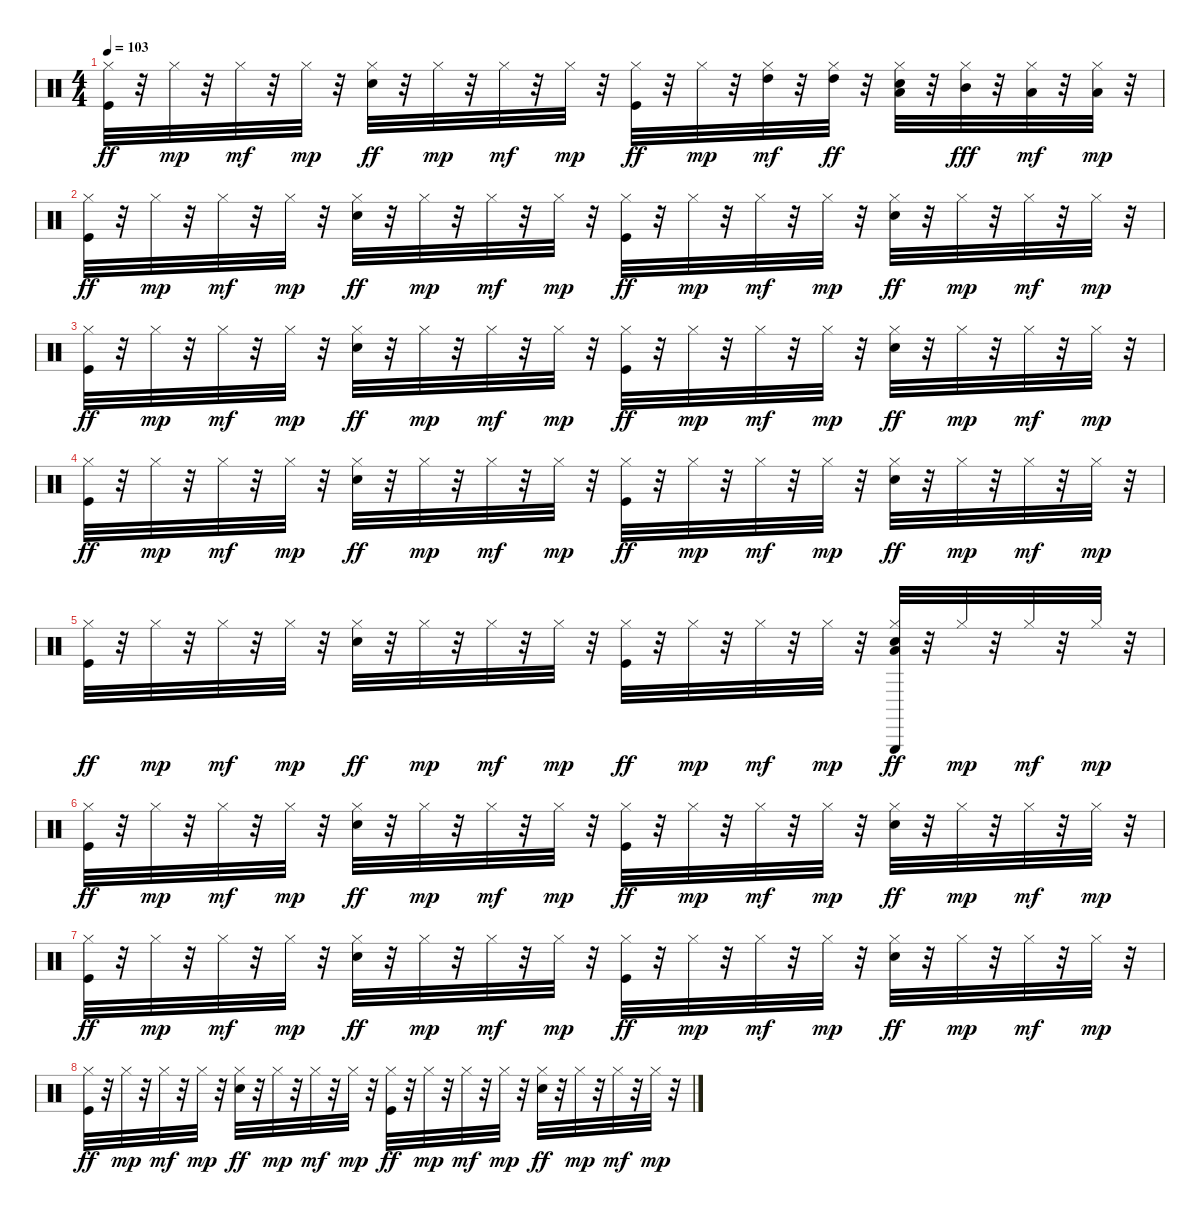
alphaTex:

\track "" {instrument percussion}
\staff {score}
\articulation defaults
\ts (4 4)
\tempo 103
\clef neutral
\ks c
("Kick (hit)" "Hi-Hat (closed)").32{dy ff} r.32 "Hi-Hat (closed)".32{dy mp} r.32 "Hi-Hat (closed)".32{dy mf} r.32 "Hi-Hat (closed)".32{dy mp} r.32 ("Snare (hit) 2" "Hi-Hat (closed)").32{dy ff} r.32 "Hi-Hat (closed)".32{dy mp} r.32 "Hi-Hat (closed)".32{dy mf} r.32 "Hi-Hat (closed)".32{dy mp} r.32 ("Kick (hit)" "Hi-Hat (closed)").32{dy ff} r.32 "Hi-Hat (closed)".32{dy mp} r.32 ("Hi-Hat (closed)" "High Tom (hit)").32{dy mf} r.32 ("Hi-Hat (closed)" "High Tom (hit)").32{dy ff} r.32 ("Snare (hit) 2" "Hi-Hat (closed)" "Low Tom (hit)").32 r.32 ("Hi-Hat (closed)" "Mid Tom (hit)").32{dy fff} r.32 ("Hi-Hat (closed)" "Low Floor Tom (hit)").32{dy mf} r.32 ("Hi-Hat (closed)" "Low Floor Tom (hit)").32{dy mp} r.32 |
("Kick (hit)" "Hi-Hat (closed)").32{dy ff} r.32 "Hi-Hat (closed)".32{dy mp} r.32 "Hi-Hat (closed)".32{dy mf} r.32 "Hi-Hat (closed)".32{dy mp} r.32 ("Snare (hit) 2" "Hi-Hat (closed)").32{dy ff} r.32 "Hi-Hat (closed)".32{dy mp} r.32 "Hi-Hat (closed)".32{dy mf} r.32 "Hi-Hat (closed)".32{dy mp} r.32 ("Kick (hit)" "Hi-Hat (closed)").32{dy ff} r.32 "Hi-Hat (closed)".32{dy mp} r.32 "Hi-Hat (closed)".32{dy mf} r.32 "Hi-Hat (closed)".32{dy mp} r.32 ("Snare (hit) 2" "Hi-Hat (closed)").32{dy ff} r.32 "Hi-Hat (closed)".32{dy mp} r.32 "Hi-Hat (closed)".32{dy mf} r.32 "Hi-Hat (closed)".32{dy mp} r.32 |
("Kick (hit)" "Hi-Hat (closed)").32{dy ff} r.32 "Hi-Hat (closed)".32{dy mp} r.32 "Hi-Hat (closed)".32{dy mf} r.32 "Hi-Hat (closed)".32{dy mp} r.32 ("Snare (hit) 2" "Hi-Hat (closed)").32{dy ff} r.32 "Hi-Hat (closed)".32{dy mp} r.32 "Hi-Hat (closed)".32{dy mf} r.32 "Hi-Hat (closed)".32{dy mp} r.32 ("Kick (hit)" "Hi-Hat (closed)").32{dy ff} r.32 "Hi-Hat (closed)".32{dy mp} r.32 "Hi-Hat (closed)".32{dy mf} r.32 "Hi-Hat (closed)".32{dy mp} r.32 ("Snare (hit) 2" "Hi-Hat (closed)").32{dy ff} r.32 "Hi-Hat (closed)".32{dy mp} r.32 "Hi-Hat (closed)".32{dy mf} r.32 "Hi-Hat (closed)".32{dy mp} r.32 |
("Kick (hit)" "Hi-Hat (closed)").32{dy ff} r.32 "Hi-Hat (closed)".32{dy mp} r.32 "Hi-Hat (closed)".32{dy mf} r.32 "Hi-Hat (closed)".32{dy mp} r.32 ("Snare (hit) 2" "Hi-Hat (closed)").32{dy ff} r.32 "Hi-Hat (closed)".32{dy mp} r.32 "Hi-Hat (closed)".32{dy mf} r.32 "Hi-Hat (closed)".32{dy mp} r.32 ("Kick (hit)" "Hi-Hat (closed)").32{dy ff} r.32 "Hi-Hat (closed)".32{dy mp} r.32 "Hi-Hat (closed)".32{dy mf} r.32 "Hi-Hat (closed)".32{dy mp} r.32 ("Snare (hit) 2" "Hi-Hat (closed)").32{dy ff} r.32 "Hi-Hat (closed)".32{dy mp} r.32 "Hi-Hat (closed)".32{dy mf} r.32 "Hi-Hat (closed)".32{dy mp} r.32 |
("Kick (hit)" "Hi-Hat (closed)").32{dy ff} r.32 "Hi-Hat (closed)".32{dy mp} r.32 "Hi-Hat (closed)".32{dy mf} r.32 "Hi-Hat (closed)".32{dy mp} r.32 ("Snare (hit) 2" "Hi-Hat (closed)").32{dy ff} r.32 "Hi-Hat (closed)".32{dy mp} r.32 "Hi-Hat (closed)".32{dy mf} r.32 "Hi-Hat (closed)".32{dy mp} r.32 ("Kick (hit)" "Hi-Hat (closed)").32{dy ff} r.32 "Hi-Hat (closed)".32{dy mp} r.32 "Hi-Hat (closed)".32{dy mf} r.32 "Hi-Hat (closed)".32{dy mp} r.32 ("Snare (hit) 2" "Hi-Hat (closed)" "Triangle (hit)" "Low Floor Tom (hit)").32{dy ff} r.32 "Hi-Hat (closed)".32{dy mp} r.32 "Hi-Hat (closed)".32{dy mf} r.32 "Hi-Hat (closed)".32{dy mp} r.32 |
("Kick (hit)" "Hi-Hat (closed)").32{dy ff} r.32 "Hi-Hat (closed)".32{dy mp} r.32 "Hi-Hat (closed)".32{dy mf} r.32 "Hi-Hat (closed)".32{dy mp} r.32 ("Snare (hit) 2" "Hi-Hat (closed)").32{dy ff} r.32 "Hi-Hat (closed)".32{dy mp} r.32 "Hi-Hat (closed)".32{dy mf} r.32 "Hi-Hat (closed)".32{dy mp} r.32 ("Kick (hit)" "Hi-Hat (closed)").32{dy ff} r.32 "Hi-Hat (closed)".32{dy mp} r.32 "Hi-Hat (closed)".32{dy mf} r.32 "Hi-Hat (closed)".32{dy mp} r.32 ("Snare (hit) 2" "Hi-Hat (closed)").32{dy ff} r.32 "Hi-Hat (closed)".32{dy mp} r.32 "Hi-Hat (closed)".32{dy mf} r.32 "Hi-Hat (closed)".32{dy mp} r.32 |
("Kick (hit)" "Hi-Hat (closed)").32{dy ff} r.32 "Hi-Hat (closed)".32{dy mp} r.32 "Hi-Hat (closed)".32{dy mf} r.32 "Hi-Hat (closed)".32{dy mp} r.32 ("Snare (hit) 2" "Hi-Hat (closed)").32{dy ff} r.32 "Hi-Hat (closed)".32{dy mp} r.32 "Hi-Hat (closed)".32{dy mf} r.32 "Hi-Hat (closed)".32{dy mp} r.32 ("Kick (hit)" "Hi-Hat (closed)").32{dy ff} r.32 "Hi-Hat (closed)".32{dy mp} r.32 "Hi-Hat (closed)".32{dy mf} r.32 "Hi-Hat (closed)".32{dy mp} r.32 ("Snare (hit) 2" "Hi-Hat (closed)").32{dy ff} r.32 "Hi-Hat (closed)".32{dy mp} r.32 "Hi-Hat (closed)".32{dy mf} r.32 "Hi-Hat (closed)".32{dy mp} r.32 |
("Kick (hit)" "Hi-Hat (closed)").32{dy ff} r.32 "Hi-Hat (closed)".32{dy mp} r.32 "Hi-Hat (closed)".32{dy mf} r.32 "Hi-Hat (closed)".32{dy mp} r.32 ("Snare (hit) 2" "Hi-Hat (closed)").32{dy ff} r.32 "Hi-Hat (closed)".32{dy mp} r.32 "Hi-Hat (closed)".32{dy mf} r.32 "Hi-Hat (closed)".32{dy mp} r.32 ("Kick (hit)" "Hi-Hat (closed)").32{dy ff} r.32 "Hi-Hat (closed)".32{dy mp} r.32 "Hi-Hat (closed)".32{dy mf} r.32 "Hi-Hat (closed)".32{dy mp} r.32 ("Snare (hit) 2" "Hi-Hat (closed)").32{dy ff} r.32 "Hi-Hat (closed)".32{dy mp} r.32 "Hi-Hat (closed)".32{dy mf} r.32 "Hi-Hat (closed)".32{dy mp} r.32
